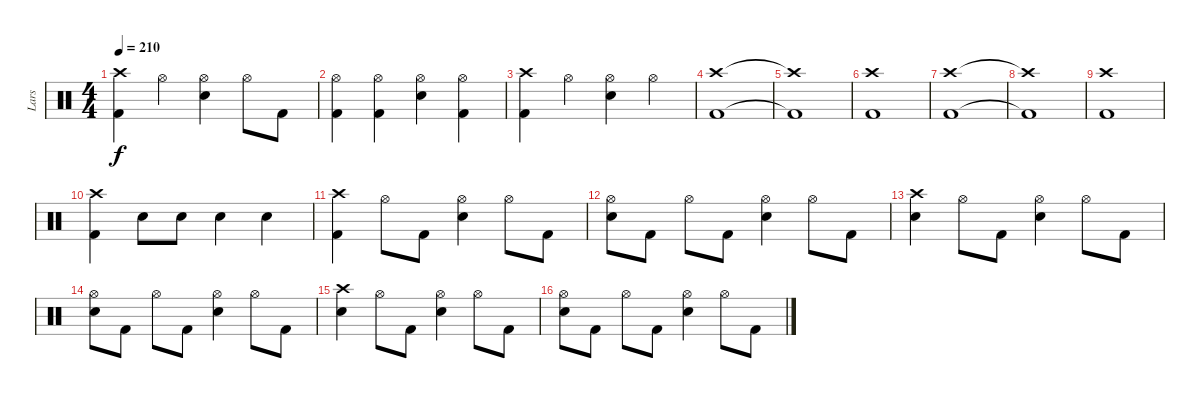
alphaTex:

\track ("Lars" "Lars") {instrument percussion}
\staff {score}
\articulation defaults
\ts (4 4)
\tempo 210
\clef neutral
\ks c
("Kick (hit) 2" "Crash high (hit)").4{dy f} "Hi-Hat (open)".4 ("Snare (hit) 2" "Hi-Hat (open)").4 "Hi-Hat (open)".8 "Kick (hit) 2".8 |
("Kick (hit) 2" "Hi-Hat (open)").4 ("Kick (hit) 2" "Hi-Hat (open)").4 ("Snare (hit) 2" "Hi-Hat (open)").4 ("Kick (hit) 2" "Hi-Hat (open)").4 |
("Kick (hit) 2" "Crash high (hit)").4 "Hi-Hat (open)".4 ("Snare (hit) 2" "Hi-Hat (open)").4 "Hi-Hat (open)".4 |
("Kick (hit) 2" "Crash high (hit)").1 |
("Kick (hit) 2"{t} "Crash high (hit)"{t}).1 |
("Kick (hit) 2" "Crash high (hit)").1 |
("Kick (hit) 2" "Crash high (hit)").1 |
("Kick (hit) 2"{t} "Crash high (hit)"{t}).1 |
("Kick (hit) 2" "Crash high (hit)").1 |
("Kick (hit) 2" "Crash high (hit)").4 "Snare (hit) 2".8 "Snare (hit) 2".8 "Snare (hit) 2".4 "Snare (hit) 2".4 |
("Kick (hit) 2" "Crash high (hit)").4 "Hi-Hat (open)".8 "Kick (hit) 2".8 ("Snare (hit) 2" "Hi-Hat (open)").4 "Hi-Hat (open)".8 "Kick (hit) 2".8 |
("Snare (hit) 2" "Hi-Hat (open)").8 "Kick (hit) 2".8 "Hi-Hat (open)".8 "Kick (hit) 2".8 ("Snare (hit) 2" "Hi-Hat (open)").4 "Hi-Hat (open)".8 "Kick (hit) 2".8 |
("Snare (hit) 2" "Crash high (hit)").4 "Hi-Hat (open)".8 "Kick (hit) 2".8 ("Snare (hit) 2" "Hi-Hat (open)").4 "Hi-Hat (open)".8 "Kick (hit) 2".8 |
("Snare (hit) 2" "Hi-Hat (open)").8 "Kick (hit) 2".8 "Hi-Hat (open)".8 "Kick (hit) 2".8 ("Snare (hit) 2" "Hi-Hat (open)").4 "Hi-Hat (open)".8 "Kick (hit) 2".8 |
("Snare (hit) 2" "Crash high (hit)").4 "Hi-Hat (open)".8 "Kick (hit) 2".8 ("Snare (hit) 2" "Hi-Hat (open)").4 "Hi-Hat (open)".8 "Kick (hit) 2".8 |
("Snare (hit) 2" "Hi-Hat (open)").8 "Kick (hit) 2".8 "Hi-Hat (open)".8 "Kick (hit) 2".8 ("Snare (hit) 2" "Hi-Hat (open)").4 "Hi-Hat (open)".8 "Kick (hit) 2".8
